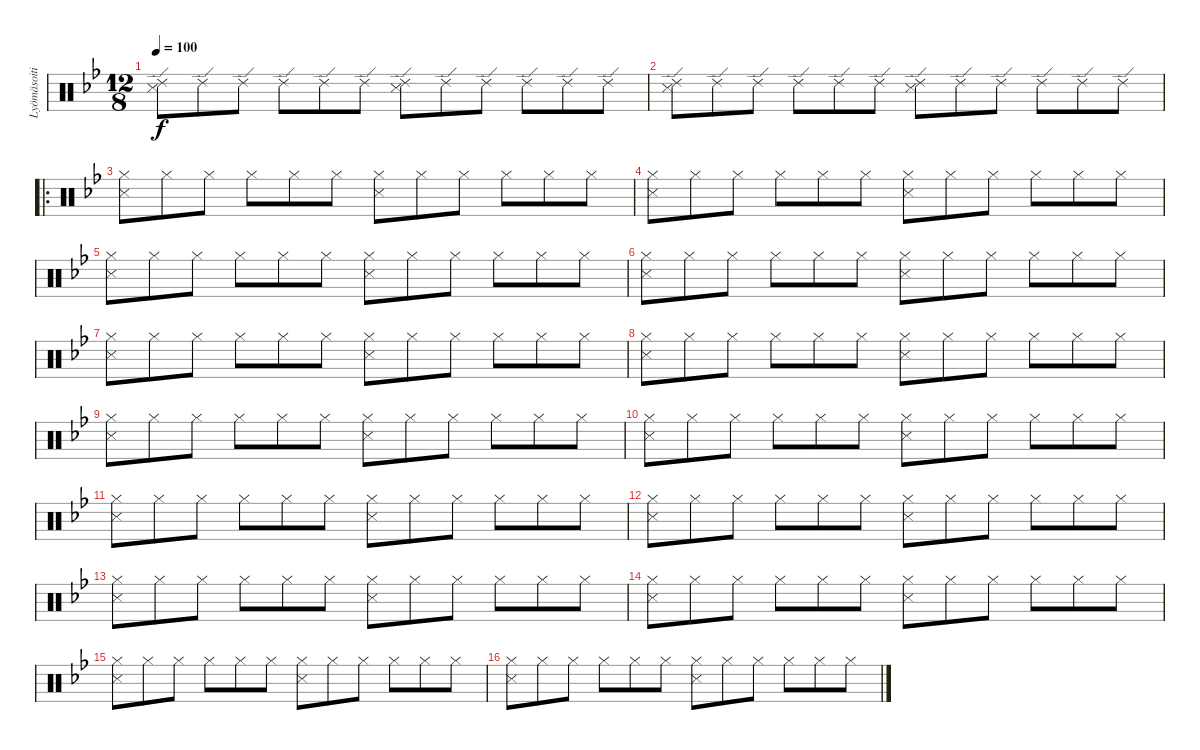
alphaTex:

\track ("Lyömäsoitin" "Lyömäsoiti") {instrument percussion}
\staff {score}
\articulation defaults
\ts (12 8)
\tempo 100
\clef neutral
\ks bb
("Ride (edge) 2" "Snare (side stick) 3").8{dy f} "Ride (edge) 2".8 "Ride (edge) 2".8 "Ride (edge) 2".8 "Ride (edge) 2".8 "Ride (edge) 2".8 ("Ride (edge) 2" "Snare (side stick) 3").8 "Ride (edge) 2".8 "Ride (edge) 2".8 "Ride (edge) 2".8 "Ride (edge) 2".8 "Ride (edge) 2".8 |
("Ride (edge) 2" "Snare (side stick) 3").8 "Ride (edge) 2".8 "Ride (edge) 2".8 "Ride (edge) 2".8 "Ride (edge) 2".8 "Ride (edge) 2".8 ("Ride (edge) 2" "Snare (side stick) 3").8 "Ride (edge) 2".8 "Ride (edge) 2".8 "Ride (edge) 2".8 "Ride (edge) 2".8 "Ride (edge) 2".8 |
\ro
("Hi-Hat (closed)" "Snare (side stick) 3").8 "Hi-Hat (closed)".8 "Hi-Hat (closed)".8 "Hi-Hat (closed)".8 "Hi-Hat (closed)".8 "Hi-Hat (closed)".8 ("Hi-Hat (closed)" "Snare (side stick) 3").8 "Hi-Hat (closed)".8 "Hi-Hat (closed)".8 "Hi-Hat (closed)".8 "Hi-Hat (closed)".8 "Hi-Hat (closed)".8 |
("Hi-Hat (closed)" "Snare (side stick) 3").8 "Hi-Hat (closed)".8 "Hi-Hat (closed)".8 "Hi-Hat (closed)".8 "Hi-Hat (closed)".8 "Hi-Hat (closed)".8 ("Hi-Hat (closed)" "Snare (side stick) 3").8 "Hi-Hat (closed)".8 "Hi-Hat (closed)".8 "Hi-Hat (closed)".8 "Hi-Hat (closed)".8 "Hi-Hat (closed)".8 |
("Hi-Hat (closed)" "Snare (side stick) 3").8 "Hi-Hat (closed)".8 "Hi-Hat (closed)".8 "Hi-Hat (closed)".8 "Hi-Hat (closed)".8 "Hi-Hat (closed)".8 ("Hi-Hat (closed)" "Snare (side stick) 3").8 "Hi-Hat (closed)".8 "Hi-Hat (closed)".8 "Hi-Hat (closed)".8 "Hi-Hat (closed)".8 "Hi-Hat (closed)".8 |
("Hi-Hat (closed)" "Snare (side stick) 3").8 "Hi-Hat (closed)".8 "Hi-Hat (closed)".8 "Hi-Hat (closed)".8 "Hi-Hat (closed)".8 "Hi-Hat (closed)".8 ("Hi-Hat (closed)" "Snare (side stick) 3").8 "Hi-Hat (closed)".8 "Hi-Hat (closed)".8 "Hi-Hat (closed)".8 "Hi-Hat (closed)".8 "Hi-Hat (closed)".8 |
("Hi-Hat (closed)" "Snare (side stick) 3").8 "Hi-Hat (closed)".8 "Hi-Hat (closed)".8 "Hi-Hat (closed)".8 "Hi-Hat (closed)".8 "Hi-Hat (closed)".8 ("Hi-Hat (closed)" "Snare (side stick) 3").8 "Hi-Hat (closed)".8 "Hi-Hat (closed)".8 "Hi-Hat (closed)".8 "Hi-Hat (closed)".8 "Hi-Hat (closed)".8 |
("Hi-Hat (closed)" "Snare (side stick) 3").8 "Hi-Hat (closed)".8 "Hi-Hat (closed)".8 "Hi-Hat (closed)".8 "Hi-Hat (closed)".8 "Hi-Hat (closed)".8 ("Hi-Hat (closed)" "Snare (side stick) 3").8 "Hi-Hat (closed)".8 "Hi-Hat (closed)".8 "Hi-Hat (closed)".8 "Hi-Hat (closed)".8 "Hi-Hat (closed)".8 |
("Hi-Hat (closed)" "Snare (side stick) 3").8 "Hi-Hat (closed)".8 "Hi-Hat (closed)".8 "Hi-Hat (closed)".8 "Hi-Hat (closed)".8 "Hi-Hat (closed)".8 ("Hi-Hat (closed)" "Snare (side stick) 3").8 "Hi-Hat (closed)".8 "Hi-Hat (closed)".8 "Hi-Hat (closed)".8 "Hi-Hat (closed)".8 "Hi-Hat (closed)".8 |
("Hi-Hat (closed)" "Snare (side stick) 3").8 "Hi-Hat (closed)".8 "Hi-Hat (closed)".8 "Hi-Hat (closed)".8 "Hi-Hat (closed)".8 "Hi-Hat (closed)".8 ("Hi-Hat (closed)" "Snare (side stick) 3").8 "Hi-Hat (closed)".8 "Hi-Hat (closed)".8 "Hi-Hat (closed)".8 "Hi-Hat (closed)".8 "Hi-Hat (closed)".8 |
("Hi-Hat (closed)" "Snare (side stick) 3").8 "Hi-Hat (closed)".8 "Hi-Hat (closed)".8 "Hi-Hat (closed)".8 "Hi-Hat (closed)".8 "Hi-Hat (closed)".8 ("Hi-Hat (closed)" "Snare (side stick) 3").8 "Hi-Hat (closed)".8 "Hi-Hat (closed)".8 "Hi-Hat (closed)".8 "Hi-Hat (closed)".8 "Hi-Hat (closed)".8 |
("Hi-Hat (closed)" "Snare (side stick) 3").8 "Hi-Hat (closed)".8 "Hi-Hat (closed)".8 "Hi-Hat (closed)".8 "Hi-Hat (closed)".8 "Hi-Hat (closed)".8 ("Hi-Hat (closed)" "Snare (side stick) 3").8 "Hi-Hat (closed)".8 "Hi-Hat (closed)".8 "Hi-Hat (closed)".8 "Hi-Hat (closed)".8 "Hi-Hat (closed)".8 |
("Hi-Hat (closed)" "Snare (side stick) 3").8 "Hi-Hat (closed)".8 "Hi-Hat (closed)".8 "Hi-Hat (closed)".8 "Hi-Hat (closed)".8 "Hi-Hat (closed)".8 ("Hi-Hat (closed)" "Snare (side stick) 3").8 "Hi-Hat (closed)".8 "Hi-Hat (closed)".8 "Hi-Hat (closed)".8 "Hi-Hat (closed)".8 "Hi-Hat (closed)".8 |
("Hi-Hat (closed)" "Snare (side stick) 3").8 "Hi-Hat (closed)".8 "Hi-Hat (closed)".8 "Hi-Hat (closed)".8 "Hi-Hat (closed)".8 "Hi-Hat (closed)".8 ("Hi-Hat (closed)" "Snare (side stick) 3").8 "Hi-Hat (closed)".8 "Hi-Hat (closed)".8 "Hi-Hat (closed)".8 "Hi-Hat (closed)".8 "Hi-Hat (closed)".8 |
("Hi-Hat (closed)" "Snare (side stick) 3").8 "Hi-Hat (closed)".8 "Hi-Hat (closed)".8 "Hi-Hat (closed)".8 "Hi-Hat (closed)".8 "Hi-Hat (closed)".8 ("Hi-Hat (closed)" "Snare (side stick) 3").8 "Hi-Hat (closed)".8 "Hi-Hat (closed)".8 "Hi-Hat (closed)".8 "Hi-Hat (closed)".8 "Hi-Hat (closed)".8 |
("Hi-Hat (closed)" "Snare (side stick) 3").8 "Hi-Hat (closed)".8 "Hi-Hat (closed)".8 "Hi-Hat (closed)".8 "Hi-Hat (closed)".8 "Hi-Hat (closed)".8 ("Hi-Hat (closed)" "Snare (side stick) 3").8 "Hi-Hat (closed)".8 "Hi-Hat (closed)".8 "Hi-Hat (closed)".8 "Hi-Hat (closed)".8 "Hi-Hat (closed)".8
